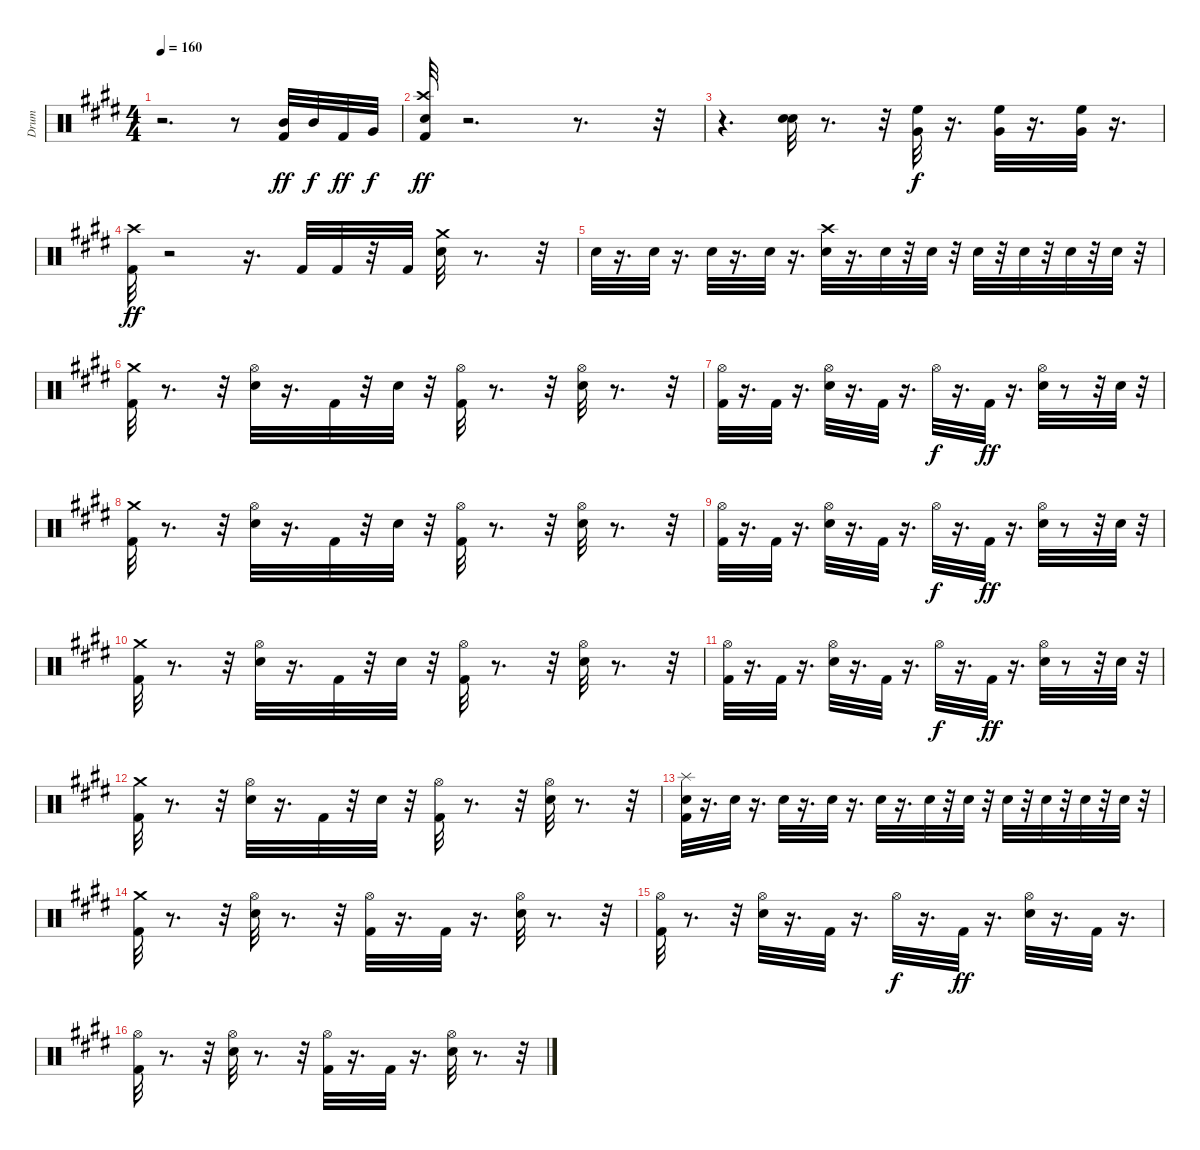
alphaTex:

\track ("Drum" "Drum") {instrument percussion}
\staff {score}
\articulation defaults
\ts (4 4)
\tempo 160
\clef neutral
\ks e
r.2{d dy ff} r.8 ("Mid Tom (hit)" "Kick (hit) 2").32{volume 15 balance 8} "Mid Tom (hit)".32{dy f} "Kick (hit) 2".32{dy ff} "Very Low Tom (hit)".32{dy f} |
("Crash high (hit)" "Kick (hit) 2" "Electric Snare (hit)").32{dy ff} r.2{d} r.8{d} r.32 |
r.4{d} ("Electric Snare (hit)" "Electric Snare (hit)").32 r.8{d} r.32 ("High Floor Tom (hit)" "Very Low Tom (hit)").32{dy f} r.16{d} ("High Floor Tom (hit)" "Very Low Tom (hit)").32 r.16{d} ("High Floor Tom (hit)" "Very Low Tom (hit)").32 r.16{d} |
("Crash high (hit)" "Kick (hit) 2").32{dy ff} r.2 r.16{d} "Kick (hit) 2".32 "Kick (hit) 2".32 r.32 "Kick (hit) 2".32 ("Crash medium (hit)" "Electric Snare (hit)").32 r.8{d} r.32 |
"Electric Snare (hit)".32 r.16{d} "Electric Snare (hit)".32 r.16{d} "Electric Snare (hit)".32 r.16{d} "Electric Snare (hit)".32 r.16{d} ("Crash high (hit)" "Electric Snare (hit)").32 r.16{d} "Electric Snare (hit)".32 r.32 "Electric Snare (hit)".32 r.32 "Electric Snare (hit)".32 r.32 "Electric Snare (hit)".32 r.32 "Electric Snare (hit)".32 r.32 "Electric Snare (hit)".32 r.32 |
("Crash medium (hit)" "Kick (hit) 2").32{volume 9} r.8{d} r.32 ("Electric Snare (hit)" "Hi-Hat (open)").32 r.16{d} "Kick (hit) 2".32 r.32 "Electric Snare (hit)".32 r.32 ("Kick (hit) 2" "Hi-Hat (open)").32 r.8{d} r.32 ("Electric Snare (hit)" "Hi-Hat (open)").32 r.8{d} r.32 |
("Kick (hit) 2" "Hi-Hat (open)").32 r.16{d} "Kick (hit) 2".32 r.16{d} ("Electric Snare (hit)" "Hi-Hat (open)").32 r.16{d} "Kick (hit) 2".32 r.16{d} "Hi-Hat (open)".32{dy f} r.16{d} "Kick (hit) 2".32{dy ff} r.16{d} ("Electric Snare (hit)" "Hi-Hat (open)").32 r.8 r.32 "Electric Snare (hit)".32 r.32 |
("Crash medium (hit)" "Kick (hit) 2").32 r.8{d} r.32 ("Electric Snare (hit)" "Hi-Hat (open)").32 r.16{d} "Kick (hit) 2".32 r.32 "Electric Snare (hit)".32 r.32 ("Kick (hit) 2" "Hi-Hat (open)").32 r.8{d} r.32 ("Electric Snare (hit)" "Hi-Hat (open)").32 r.8{d} r.32 |
("Kick (hit) 2" "Hi-Hat (open)").32 r.16{d} "Kick (hit) 2".32 r.16{d} ("Electric Snare (hit)" "Hi-Hat (open)").32 r.16{d} "Kick (hit) 2".32 r.16{d} "Hi-Hat (open)".32{dy f} r.16{d} "Kick (hit) 2".32{dy ff} r.16{d} ("Electric Snare (hit)" "Hi-Hat (open)").32 r.8 r.32 "Electric Snare (hit)".32 r.32 |
("Crash medium (hit)" "Kick (hit) 2").32 r.8{d} r.32 ("Electric Snare (hit)" "Hi-Hat (open)").32 r.16{d} "Kick (hit) 2".32 r.32 "Electric Snare (hit)".32 r.32 ("Kick (hit) 2" "Hi-Hat (open)").32 r.8{d} r.32 ("Electric Snare (hit)" "Hi-Hat (open)").32 r.8{d} r.32 |
("Kick (hit) 2" "Hi-Hat (open)").32 r.16{d} "Kick (hit) 2".32 r.16{d} ("Electric Snare (hit)" "Hi-Hat (open)").32 r.16{d} "Kick (hit) 2".32 r.16{d} "Hi-Hat (open)".32{dy f} r.16{d} "Kick (hit) 2".32{dy ff} r.16{d} ("Electric Snare (hit)" "Hi-Hat (open)").32 r.8 r.32 "Electric Snare (hit)".32 r.32 |
("Crash medium (hit)" "Kick (hit) 2").32 r.8{d} r.32 ("Electric Snare (hit)" "Hi-Hat (open)").32 r.16{d} "Kick (hit) 2".32 r.32 "Electric Snare (hit)".32 r.32 ("Kick (hit) 2" "Hi-Hat (open)").32 r.8{d} r.32 ("Electric Snare (hit)" "Hi-Hat (open)").32 r.8{d} r.32 |
("Splash (hit)" "Kick (hit) 2" "Electric Snare (hit)").32 r.16{d} "Electric Snare (hit)".32 r.16{d} "Electric Snare (hit)".32 r.16{d} "Electric Snare (hit)".32 r.16{d} "Electric Snare (hit)".32 r.16{d} "Electric Snare (hit)".32 r.32 "Electric Snare (hit)".32 r.32 "Electric Snare (hit)".32 r.32 "Electric Snare (hit)".32 r.32 "Electric Snare (hit)".32 r.32 "Electric Snare (hit)".32 r.32 |
("Crash medium (hit)" "Kick (hit) 2").32 r.8{d} r.32 ("Electric Snare (hit)" "Hi-Hat (open)").32 r.8{d} r.32 ("Kick (hit) 2" "Hi-Hat (open)").32 r.16{d} "Kick (hit) 2".32 r.16{d} ("Electric Snare (hit)" "Hi-Hat (open)").32 r.8{d} r.32 |
("Kick (hit) 2" "Hi-Hat (open)").32 r.8{d} r.32 ("Electric Snare (hit)" "Hi-Hat (open)").32 r.16{d} "Kick (hit) 2".32 r.16{d} "Hi-Hat (open)".32{dy f} r.16{d} "Kick (hit) 2".32{dy ff} r.16{d} ("Electric Snare (hit)" "Hi-Hat (open)").32 r.16{d} "Kick (hit) 2".32 r.16{d} |
("Hi-Hat (open)" "Kick (hit) 2").32 r.8{d} r.32 ("Electric Snare (hit)" "Hi-Hat (open)").32 r.8{d} r.32 ("Kick (hit) 2" "Hi-Hat (open)").32 r.16{d} "Kick (hit) 2".32 r.16{d} ("Electric Snare (hit)" "Hi-Hat (open)").32 r.8{d} r.32
